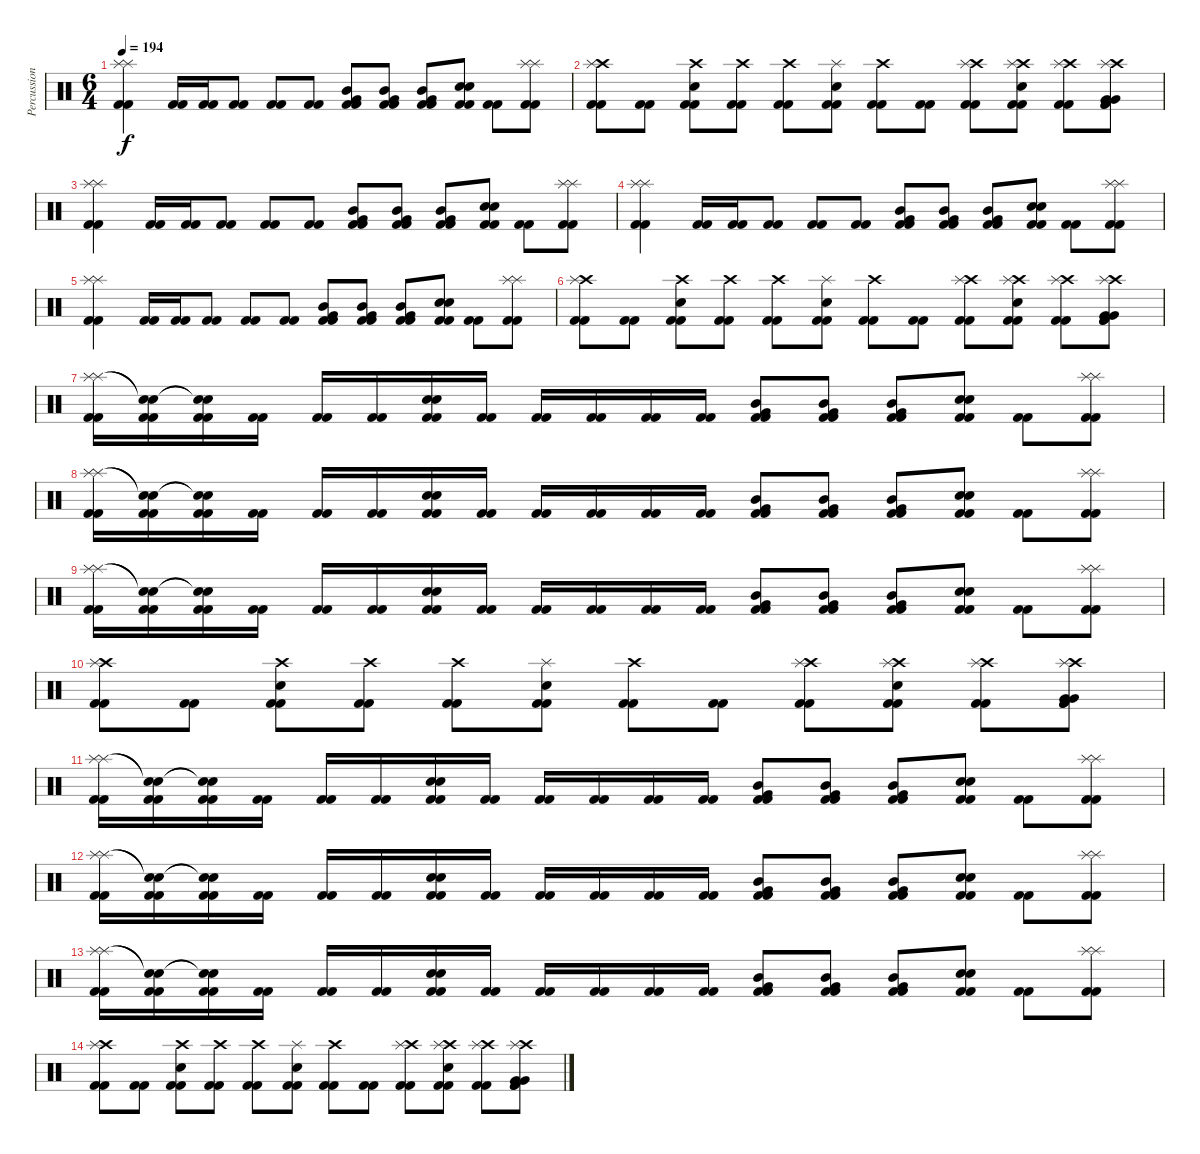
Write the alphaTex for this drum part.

\track ("Percussion" "Percussion") {instrument percussion}
\staff {score}
\articulation defaults
\ts (6 4)
\tempo 194
\clef neutral
\ks c
("Splash (hit)" "Splash (hit)" "Kick (hit) 2" "Kick (hit) 2").4{dy f} ("Kick (hit) 2" "Kick (hit) 2").16 ("Kick (hit) 2" "Kick (hit) 2").16 ("Kick (hit) 2" "Kick (hit) 2").8 ("Kick (hit) 2" "Kick (hit) 2").8 ("Kick (hit) 2" "Kick (hit) 2").8 ("Very Low Tom (hit)" "Mid Tom (hit)" "Kick (hit) 2" "Kick (hit) 2").8 ("Very Low Tom (hit)" "Mid Tom (hit)" "Kick (hit) 2" "Kick (hit) 2").8 ("Very Low Tom (hit)" "Mid Tom (hit)" "Kick (hit) 2" "Kick (hit) 2").8 ("Snare (hit) 2" "Snare (hit) 2" "Kick (hit) 2" "Kick (hit) 2").8 ("Kick (hit) 2" "Kick (hit) 2").8 ("Splash (hit)" "Splash (hit)" "Kick (hit) 2" "Kick (hit) 2").8 |
("Crash high (hit)" "Splash (hit)" "Kick (hit) 2" "Kick (hit) 2").8 ("Kick (hit) 2" "Kick (hit) 2").8 ("Crash high (hit)" "Snare (hit) 2" "Kick (hit) 2" "Kick (hit) 2").8 ("Crash high (hit)" "Kick (hit) 2" "Kick (hit) 2").8 ("Crash high (hit)" "Kick (hit) 2" "Kick (hit) 2").8 ("Splash (hit)" "Snare (hit) 2" "Kick (hit) 2" "Kick (hit) 2").8 ("Crash high (hit)" "Kick (hit) 2" "Kick (hit) 2").8 ("Kick (hit) 2" "Kick (hit) 2").8 ("Crash high (hit)" "Splash (hit)" "Kick (hit) 2" "Kick (hit) 2").8 ("Crash high (hit)" "Splash (hit)" "Snare (hit) 2" "Kick (hit) 2" "Kick (hit) 2").8 ("Crash high (hit)" "Splash (hit)" "Kick (hit) 2" "Kick (hit) 2").8 ("Crash high (hit)" "Splash (hit)" "Very Low Tom (hit)" "Very Low Tom (hit)" "Kick (hit) 2" "Kick (hit) 2").8 |
("Splash (hit)" "Splash (hit)" "Kick (hit) 2" "Kick (hit) 2").4 ("Kick (hit) 2" "Kick (hit) 2").16 ("Kick (hit) 2" "Kick (hit) 2").16 ("Kick (hit) 2" "Kick (hit) 2").8 ("Kick (hit) 2" "Kick (hit) 2").8 ("Kick (hit) 2" "Kick (hit) 2").8 ("Very Low Tom (hit)" "Mid Tom (hit)" "Kick (hit) 2" "Kick (hit) 2").8 ("Very Low Tom (hit)" "Mid Tom (hit)" "Kick (hit) 2" "Kick (hit) 2").8 ("Very Low Tom (hit)" "Mid Tom (hit)" "Kick (hit) 2" "Kick (hit) 2").8 ("Snare (hit) 2" "Snare (hit) 2" "Kick (hit) 2" "Kick (hit) 2").8 ("Kick (hit) 2" "Kick (hit) 2").8 ("Splash (hit)" "Splash (hit)" "Kick (hit) 2" "Kick (hit) 2").8 |
("Splash (hit)" "Splash (hit)" "Kick (hit) 2" "Kick (hit) 2").4 ("Kick (hit) 2" "Kick (hit) 2").16 ("Kick (hit) 2" "Kick (hit) 2").16 ("Kick (hit) 2" "Kick (hit) 2").8 ("Kick (hit) 2" "Kick (hit) 2").8 ("Kick (hit) 2" "Kick (hit) 2").8 ("Very Low Tom (hit)" "Mid Tom (hit)" "Kick (hit) 2" "Kick (hit) 2").8 ("Very Low Tom (hit)" "Mid Tom (hit)" "Kick (hit) 2" "Kick (hit) 2").8 ("Very Low Tom (hit)" "Mid Tom (hit)" "Kick (hit) 2" "Kick (hit) 2").8 ("Snare (hit) 2" "Snare (hit) 2" "Kick (hit) 2" "Kick (hit) 2").8 ("Kick (hit) 2" "Kick (hit) 2").8 ("Splash (hit)" "Splash (hit)" "Kick (hit) 2" "Kick (hit) 2").8 |
("Splash (hit)" "Splash (hit)" "Kick (hit) 2" "Kick (hit) 2").4 ("Kick (hit) 2" "Kick (hit) 2").16 ("Kick (hit) 2" "Kick (hit) 2").16 ("Kick (hit) 2" "Kick (hit) 2").8 ("Kick (hit) 2" "Kick (hit) 2").8 ("Kick (hit) 2" "Kick (hit) 2").8 ("Very Low Tom (hit)" "Mid Tom (hit)" "Kick (hit) 2" "Kick (hit) 2").8 ("Very Low Tom (hit)" "Mid Tom (hit)" "Kick (hit) 2" "Kick (hit) 2").8 ("Very Low Tom (hit)" "Mid Tom (hit)" "Kick (hit) 2" "Kick (hit) 2").8 ("Snare (hit) 2" "Snare (hit) 2" "Kick (hit) 2" "Kick (hit) 2").8 ("Kick (hit) 2" "Kick (hit) 2").8 ("Splash (hit)" "Splash (hit)" "Kick (hit) 2" "Kick (hit) 2").8 |
("Crash high (hit)" "Splash (hit)" "Kick (hit) 2" "Kick (hit) 2").8 ("Kick (hit) 2" "Kick (hit) 2").8 ("Crash high (hit)" "Snare (hit) 2" "Kick (hit) 2" "Kick (hit) 2").8 ("Crash high (hit)" "Kick (hit) 2" "Kick (hit) 2").8 ("Crash high (hit)" "Kick (hit) 2" "Kick (hit) 2").8 ("Splash (hit)" "Snare (hit) 2" "Kick (hit) 2" "Kick (hit) 2").8 ("Crash high (hit)" "Kick (hit) 2" "Kick (hit) 2").8 ("Kick (hit) 2" "Kick (hit) 2").8 ("Crash high (hit)" "Splash (hit)" "Kick (hit) 2" "Kick (hit) 2").8 ("Crash high (hit)" "Splash (hit)" "Snare (hit) 2" "Kick (hit) 2" "Kick (hit) 2").8 ("Crash high (hit)" "Splash (hit)" "Kick (hit) 2" "Kick (hit) 2").8 ("Crash high (hit)" "Splash (hit)" "Very Low Tom (hit)" "Very Low Tom (hit)" "Kick (hit) 2" "Kick (hit) 2").8 |
("Splash (hit)" "Splash (hit)" "Kick (hit) 2" "Kick (hit) 2").16 ("Snare (hit)"{t} "Snare (hit)"{t} "Kick (hit) 2" "Kick (hit) 2").16 ("Snare (hit)"{t} "Snare (hit)"{t} "Kick (hit) 2" "Kick (hit) 2").16 ("Kick (hit) 2" "Kick (hit) 2").16 ("Kick (hit) 2" "Kick (hit) 2").16 ("Kick (hit) 2" "Kick (hit) 2").16 ("Snare (hit) 2" "Snare (hit) 2" "Kick (hit) 2" "Kick (hit) 2").16 ("Kick (hit) 2" "Kick (hit) 2").16 ("Kick (hit) 2" "Kick (hit) 2").16 ("Kick (hit) 2" "Kick (hit) 2").16 ("Kick (hit) 2" "Kick (hit) 2").16 ("Kick (hit) 2" "Kick (hit) 2").16 ("Very Low Tom (hit)" "Mid Tom (hit)" "Kick (hit) 2" "Kick (hit) 2").8 ("Very Low Tom (hit)" "Mid Tom (hit)" "Kick (hit) 2" "Kick (hit) 2").8 ("Very Low Tom (hit)" "Mid Tom (hit)" "Kick (hit) 2" "Kick (hit) 2").8 ("Snare (hit) 2" "Snare (hit) 2" "Kick (hit) 2" "Kick (hit) 2").8 ("Kick (hit) 2" "Kick (hit) 2").8 ("Splash (hit)" "Splash (hit)" "Kick (hit) 2" "Kick (hit) 2").8 |
("Splash (hit)" "Splash (hit)" "Kick (hit) 2" "Kick (hit) 2").16 ("Snare (hit)"{t} "Snare (hit)"{t} "Kick (hit) 2" "Kick (hit) 2").16 ("Snare (hit)"{t} "Snare (hit)"{t} "Kick (hit) 2" "Kick (hit) 2").16 ("Kick (hit) 2" "Kick (hit) 2").16 ("Kick (hit) 2" "Kick (hit) 2").16 ("Kick (hit) 2" "Kick (hit) 2").16 ("Snare (hit) 2" "Snare (hit) 2" "Kick (hit) 2" "Kick (hit) 2").16 ("Kick (hit) 2" "Kick (hit) 2").16 ("Kick (hit) 2" "Kick (hit) 2").16 ("Kick (hit) 2" "Kick (hit) 2").16 ("Kick (hit) 2" "Kick (hit) 2").16 ("Kick (hit) 2" "Kick (hit) 2").16 ("Very Low Tom (hit)" "Mid Tom (hit)" "Kick (hit) 2" "Kick (hit) 2").8 ("Very Low Tom (hit)" "Mid Tom (hit)" "Kick (hit) 2" "Kick (hit) 2").8 ("Very Low Tom (hit)" "Mid Tom (hit)" "Kick (hit) 2" "Kick (hit) 2").8 ("Snare (hit) 2" "Snare (hit) 2" "Kick (hit) 2" "Kick (hit) 2").8 ("Kick (hit) 2" "Kick (hit) 2").8 ("Splash (hit)" "Splash (hit)" "Kick (hit) 2" "Kick (hit) 2").8 |
("Splash (hit)" "Splash (hit)" "Kick (hit) 2" "Kick (hit) 2").16 ("Snare (hit)"{t} "Snare (hit)"{t} "Kick (hit) 2" "Kick (hit) 2").16 ("Snare (hit)"{t} "Snare (hit)"{t} "Kick (hit) 2" "Kick (hit) 2").16 ("Kick (hit) 2" "Kick (hit) 2").16 ("Kick (hit) 2" "Kick (hit) 2").16 ("Kick (hit) 2" "Kick (hit) 2").16 ("Snare (hit) 2" "Snare (hit) 2" "Kick (hit) 2" "Kick (hit) 2").16 ("Kick (hit) 2" "Kick (hit) 2").16 ("Kick (hit) 2" "Kick (hit) 2").16 ("Kick (hit) 2" "Kick (hit) 2").16 ("Kick (hit) 2" "Kick (hit) 2").16 ("Kick (hit) 2" "Kick (hit) 2").16 ("Very Low Tom (hit)" "Mid Tom (hit)" "Kick (hit) 2" "Kick (hit) 2").8 ("Very Low Tom (hit)" "Mid Tom (hit)" "Kick (hit) 2" "Kick (hit) 2").8 ("Very Low Tom (hit)" "Mid Tom (hit)" "Kick (hit) 2" "Kick (hit) 2").8 ("Snare (hit) 2" "Snare (hit) 2" "Kick (hit) 2" "Kick (hit) 2").8 ("Kick (hit) 2" "Kick (hit) 2").8 ("Splash (hit)" "Splash (hit)" "Kick (hit) 2" "Kick (hit) 2").8 |
("Crash high (hit)" "Splash (hit)" "Kick (hit) 2" "Kick (hit) 2").8 ("Kick (hit) 2" "Kick (hit) 2").8 ("Crash high (hit)" "Snare (hit) 2" "Kick (hit) 2" "Kick (hit) 2").8 ("Crash high (hit)" "Kick (hit) 2" "Kick (hit) 2").8 ("Crash high (hit)" "Kick (hit) 2" "Kick (hit) 2").8 ("Splash (hit)" "Snare (hit) 2" "Kick (hit) 2" "Kick (hit) 2").8 ("Crash high (hit)" "Kick (hit) 2" "Kick (hit) 2").8 ("Kick (hit) 2" "Kick (hit) 2").8 ("Crash high (hit)" "Splash (hit)" "Kick (hit) 2" "Kick (hit) 2").8 ("Crash high (hit)" "Splash (hit)" "Snare (hit) 2" "Kick (hit) 2" "Kick (hit) 2").8 ("Crash high (hit)" "Splash (hit)" "Kick (hit) 2" "Kick (hit) 2").8 ("Crash high (hit)" "Splash (hit)" "Very Low Tom (hit)" "Very Low Tom (hit)" "Kick (hit) 2" "Kick (hit) 2").8 |
("Splash (hit)" "Splash (hit)" "Kick (hit) 2" "Kick (hit) 2").16 ("Snare (hit)"{t} "Snare (hit)"{t} "Kick (hit) 2" "Kick (hit) 2").16 ("Snare (hit)"{t} "Snare (hit)"{t} "Kick (hit) 2" "Kick (hit) 2").16 ("Kick (hit) 2" "Kick (hit) 2").16 ("Kick (hit) 2" "Kick (hit) 2").16 ("Kick (hit) 2" "Kick (hit) 2").16 ("Snare (hit) 2" "Snare (hit) 2" "Kick (hit) 2" "Kick (hit) 2").16 ("Kick (hit) 2" "Kick (hit) 2").16 ("Kick (hit) 2" "Kick (hit) 2").16 ("Kick (hit) 2" "Kick (hit) 2").16 ("Kick (hit) 2" "Kick (hit) 2").16 ("Kick (hit) 2" "Kick (hit) 2").16 ("Very Low Tom (hit)" "Mid Tom (hit)" "Kick (hit) 2" "Kick (hit) 2").8 ("Very Low Tom (hit)" "Mid Tom (hit)" "Kick (hit) 2" "Kick (hit) 2").8 ("Very Low Tom (hit)" "Mid Tom (hit)" "Kick (hit) 2" "Kick (hit) 2").8 ("Snare (hit) 2" "Snare (hit) 2" "Kick (hit) 2" "Kick (hit) 2").8 ("Kick (hit) 2" "Kick (hit) 2").8 ("Splash (hit)" "Splash (hit)" "Kick (hit) 2" "Kick (hit) 2").8 |
("Splash (hit)" "Splash (hit)" "Kick (hit) 2" "Kick (hit) 2").16 ("Snare (hit)"{t} "Snare (hit)"{t} "Kick (hit) 2" "Kick (hit) 2").16 ("Snare (hit)"{t} "Snare (hit)"{t} "Kick (hit) 2" "Kick (hit) 2").16 ("Kick (hit) 2" "Kick (hit) 2").16 ("Kick (hit) 2" "Kick (hit) 2").16 ("Kick (hit) 2" "Kick (hit) 2").16 ("Snare (hit) 2" "Snare (hit) 2" "Kick (hit) 2" "Kick (hit) 2").16 ("Kick (hit) 2" "Kick (hit) 2").16 ("Kick (hit) 2" "Kick (hit) 2").16 ("Kick (hit) 2" "Kick (hit) 2").16 ("Kick (hit) 2" "Kick (hit) 2").16 ("Kick (hit) 2" "Kick (hit) 2").16 ("Very Low Tom (hit)" "Mid Tom (hit)" "Kick (hit) 2" "Kick (hit) 2").8 ("Very Low Tom (hit)" "Mid Tom (hit)" "Kick (hit) 2" "Kick (hit) 2").8 ("Very Low Tom (hit)" "Mid Tom (hit)" "Kick (hit) 2" "Kick (hit) 2").8 ("Snare (hit) 2" "Snare (hit) 2" "Kick (hit) 2" "Kick (hit) 2").8 ("Kick (hit) 2" "Kick (hit) 2").8 ("Splash (hit)" "Splash (hit)" "Kick (hit) 2" "Kick (hit) 2").8 |
("Splash (hit)" "Splash (hit)" "Kick (hit) 2" "Kick (hit) 2").16 ("Snare (hit)"{t} "Snare (hit)"{t} "Kick (hit) 2" "Kick (hit) 2").16 ("Snare (hit)"{t} "Snare (hit)"{t} "Kick (hit) 2" "Kick (hit) 2").16 ("Kick (hit) 2" "Kick (hit) 2").16 ("Kick (hit) 2" "Kick (hit) 2").16 ("Kick (hit) 2" "Kick (hit) 2").16 ("Snare (hit) 2" "Snare (hit) 2" "Kick (hit) 2" "Kick (hit) 2").16 ("Kick (hit) 2" "Kick (hit) 2").16 ("Kick (hit) 2" "Kick (hit) 2").16 ("Kick (hit) 2" "Kick (hit) 2").16 ("Kick (hit) 2" "Kick (hit) 2").16 ("Kick (hit) 2" "Kick (hit) 2").16 ("Very Low Tom (hit)" "Mid Tom (hit)" "Kick (hit) 2" "Kick (hit) 2").8 ("Very Low Tom (hit)" "Mid Tom (hit)" "Kick (hit) 2" "Kick (hit) 2").8 ("Very Low Tom (hit)" "Mid Tom (hit)" "Kick (hit) 2" "Kick (hit) 2").8 ("Snare (hit) 2" "Snare (hit) 2" "Kick (hit) 2" "Kick (hit) 2").8 ("Kick (hit) 2" "Kick (hit) 2").8 ("Splash (hit)" "Splash (hit)" "Kick (hit) 2" "Kick (hit) 2").8 |
("Crash high (hit)" "Splash (hit)" "Kick (hit) 2" "Kick (hit) 2").8 ("Kick (hit) 2" "Kick (hit) 2").8 ("Crash high (hit)" "Snare (hit) 2" "Kick (hit) 2" "Kick (hit) 2").8 ("Crash high (hit)" "Kick (hit) 2" "Kick (hit) 2").8 ("Crash high (hit)" "Kick (hit) 2" "Kick (hit) 2").8 ("Splash (hit)" "Snare (hit) 2" "Kick (hit) 2" "Kick (hit) 2").8 ("Crash high (hit)" "Kick (hit) 2" "Kick (hit) 2").8 ("Kick (hit) 2" "Kick (hit) 2").8 ("Crash high (hit)" "Splash (hit)" "Kick (hit) 2" "Kick (hit) 2").8 ("Crash high (hit)" "Splash (hit)" "Snare (hit) 2" "Kick (hit) 2" "Kick (hit) 2").8 ("Crash high (hit)" "Splash (hit)" "Kick (hit) 2" "Kick (hit) 2").8 ("Crash high (hit)" "Splash (hit)" "Very Low Tom (hit)" "Very Low Tom (hit)" "Kick (hit) 2" "Kick (hit) 2").8
